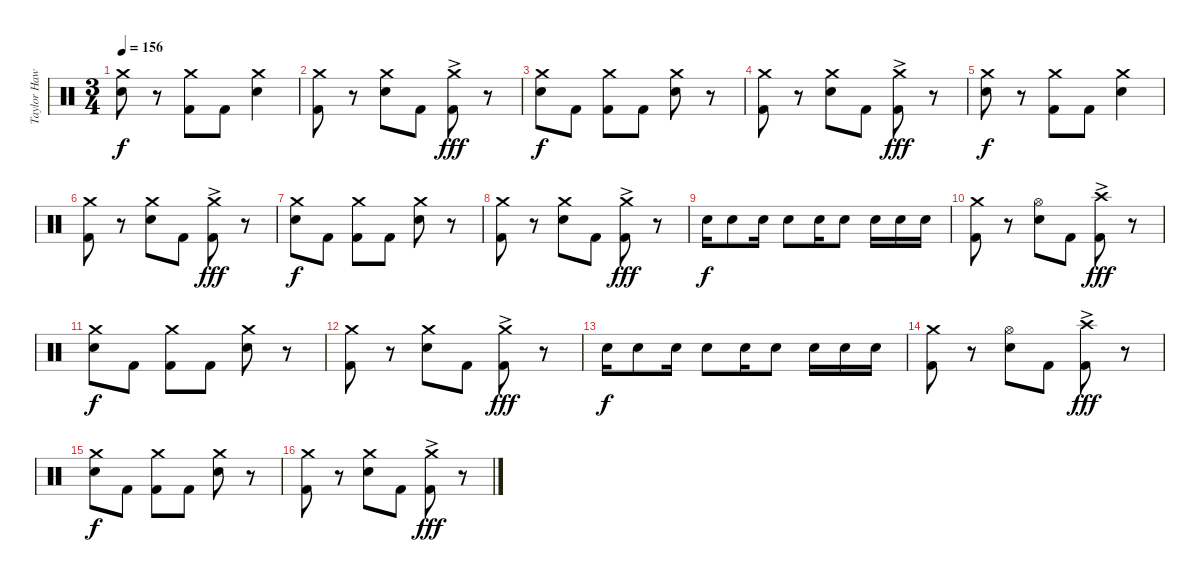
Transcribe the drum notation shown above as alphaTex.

\track ("Taylor Hawkins" "Taylor Haw") {instrument percussion}
\staff {score}
\articulation defaults
\ts (3 4)
\tempo 156
\clef neutral
\ks c
("Crash medium (hit)" "Electric Snare (hit)").8{dy f} r.8 ("Crash medium (hit)" "Kick (hit) 2").8 "Kick (hit) 2".8 ("Crash medium (hit)" "Electric Snare (hit)").4 |
("Crash medium (hit)" "Kick (hit) 2").8 r.8 ("Crash medium (hit)" "Electric Snare (hit)").8 "Kick (hit) 2".8 ("Crash medium (hit)"{ac} "Kick (hit) 2").8{dy fff} r.8 |
("Crash medium (hit)" "Electric Snare (hit)").8{dy f} "Kick (hit) 2".8 ("Crash medium (hit)" "Kick (hit) 2").8 "Kick (hit) 2".8 ("Crash medium (hit)" "Electric Snare (hit)").8 r.8 |
("Crash medium (hit)" "Kick (hit) 2").8 r.8 ("Crash medium (hit)" "Electric Snare (hit)").8 "Kick (hit) 2".8 ("Crash medium (hit)"{ac} "Kick (hit) 2").8{dy fff} r.8 |
("Crash medium (hit)" "Electric Snare (hit)").8{dy f} r.8 ("Crash medium (hit)" "Kick (hit) 2").8 "Kick (hit) 2".8 ("Crash medium (hit)" "Electric Snare (hit)").4 |
("Crash medium (hit)" "Kick (hit) 2").8 r.8 ("Crash medium (hit)" "Electric Snare (hit)").8 "Kick (hit) 2".8 ("Crash medium (hit)"{ac} "Kick (hit) 2").8{dy fff} r.8 |
("Crash medium (hit)" "Electric Snare (hit)").8{dy f} "Kick (hit) 2".8 ("Crash medium (hit)" "Kick (hit) 2").8 "Kick (hit) 2".8 ("Crash medium (hit)" "Electric Snare (hit)").8 r.8 |
("Crash medium (hit)" "Kick (hit) 2").8 r.8 ("Crash medium (hit)" "Electric Snare (hit)").8 "Kick (hit) 2".8 ("Crash medium (hit)"{ac} "Kick (hit) 2").8{dy fff} r.8 |
"Electric Snare (hit)".16{dy f} "Electric Snare (hit)".8 "Electric Snare (hit)".16 "Electric Snare (hit)".8 "Electric Snare (hit)".16 "Electric Snare (hit)".8 "Electric Snare (hit)".16 "Electric Snare (hit)".16 "Electric Snare (hit)".16 |
("Crash medium (hit)" "Kick (hit) 2").8 r.8 ("Hi-Hat (open)" "Electric Snare (hit)").8 "Kick (hit) 2".8 ("Crash high (hit)"{ac} "Kick (hit) 2").8{dy fff} r.8 |
("Crash medium (hit)" "Electric Snare (hit)").8{dy f} "Kick (hit) 2".8 ("Crash medium (hit)" "Kick (hit) 2").8 "Kick (hit) 2".8 ("Crash medium (hit)" "Electric Snare (hit)").8 r.8 |
("Crash medium (hit)" "Kick (hit) 2").8 r.8 ("Crash medium (hit)" "Electric Snare (hit)").8 "Kick (hit) 2".8 ("Crash medium (hit)"{ac} "Kick (hit) 2").8{dy fff} r.8 |
"Electric Snare (hit)".16{dy f} "Electric Snare (hit)".8 "Electric Snare (hit)".16 "Electric Snare (hit)".8 "Electric Snare (hit)".16 "Electric Snare (hit)".8 "Electric Snare (hit)".16 "Electric Snare (hit)".16 "Electric Snare (hit)".16 |
("Crash medium (hit)" "Kick (hit) 2").8 r.8 ("Hi-Hat (open)" "Electric Snare (hit)").8 "Kick (hit) 2".8 ("Crash high (hit)"{ac} "Kick (hit) 2").8{dy fff} r.8 |
("Crash medium (hit)" "Electric Snare (hit)").8{dy f} "Kick (hit) 2".8 ("Crash medium (hit)" "Kick (hit) 2").8 "Kick (hit) 2".8 ("Crash medium (hit)" "Electric Snare (hit)").8 r.8 |
("Crash medium (hit)" "Kick (hit) 2").8 r.8 ("Crash medium (hit)" "Electric Snare (hit)").8 "Kick (hit) 2".8 ("Crash medium (hit)"{ac} "Kick (hit) 2").8{dy fff} r.8
